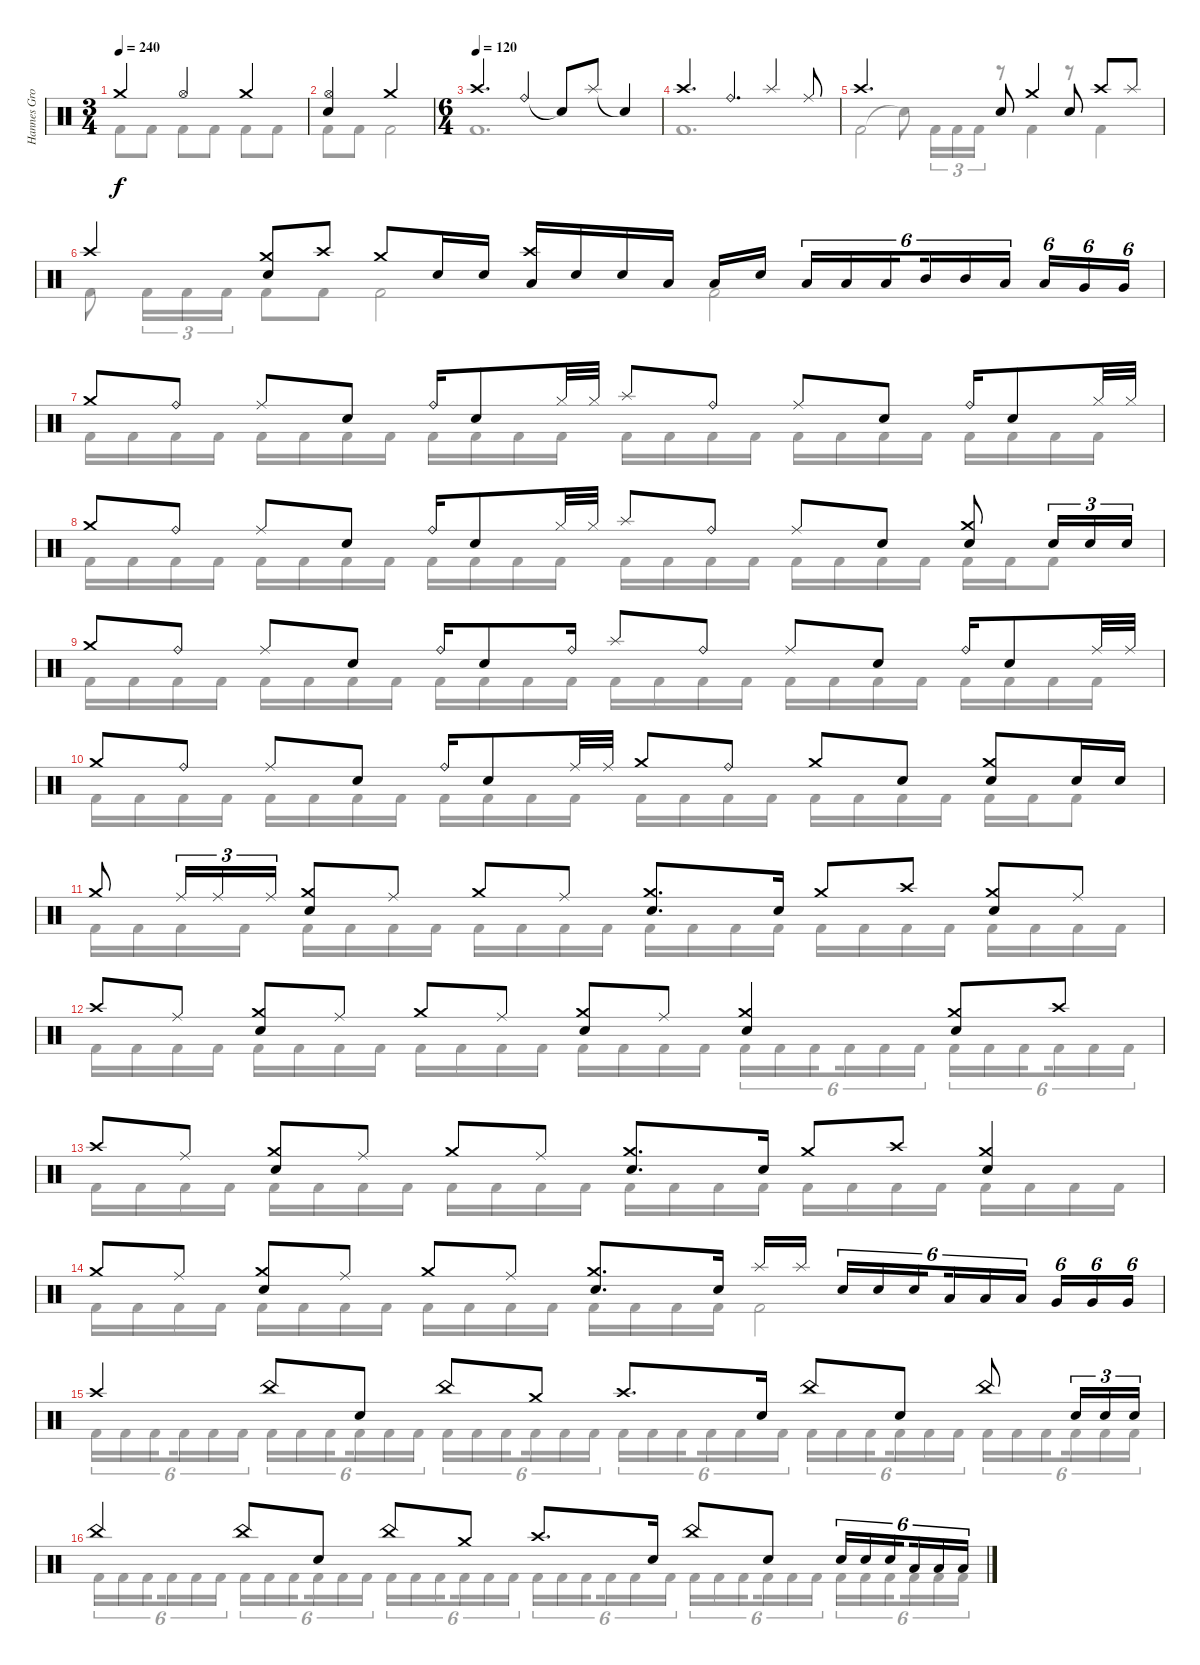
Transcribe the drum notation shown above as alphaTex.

\track ("Hannes Grossmann - drums" "Hannes Gro") {instrument percussion}
\staff {score}
\articulation defaults
\voice
\ts (3 4)
\tempo 240
\clef neutral
\ks c "Crash medium (hit)".4{dy f} "Hi-Hat (open)".4 "Crash medium (hit)".4
|
("Hi-Hat (open)" "Electric Snare (hit)").4 "Crash medium (hit)".2 |
\ts (6 4)
\tempo (120)
"Crash high (hit)".2{d} "Ride (bell)".4 "Snare (hit)"{t}.8 "Splash (hit)".8 "Snare (hit)"{t}.4 |
"Crash high (hit)".2{d} "Ride (bell)".4{d} "Splash (hit)".4 "Ride (middle)".8 |
"Crash high (hit)".2{d} "Electric Snare (hit)".8 "Crash medium (hit)".4 "Electric Snare (hit)".8 "Crash high (hit)".8 "Splash (hit)".8 |
"Crash high (hit)".4 ("Crash medium (hit)" "Electric Snare (hit)").8 "Crash high (hit)".8 "Crash medium (hit)".8 "Electric Snare (hit)".16 "Electric Snare (hit)".16 ("Crash high (hit)" "Low Tom (hit)").16 "Electric Snare (hit)".16 "Electric Snare (hit)".16 "Low Tom (hit)".16 "Low Tom (hit)".16 "Electric Snare (hit)".16{beam splitsecondary} "Low Tom (hit)".16{tu (6 4)} "Low Tom (hit)".16{tu (6 4)} "Low Tom (hit)".16{tu (6 4) beam splitsecondary} "Mid Tom (hit)".16{tu (6 4)} "Mid Tom (hit)".16{tu (6 4)} "Low Tom (hit)".16{tu (6 4) beam splitsecondary} "Low Tom (hit)".16{tu (6 4)} "Very Low Tom (hit)".16{tu (6 4)} "Very Low Tom (hit)".16{tu (6 4)} |
"Crash medium (hit)".8 "Ride (bell)".8 "Ride (middle)".8 "Electric Snare (hit)".8 "Ride (bell)".16 "Electric Snare (hit)".8 "Hi-Hat (closed)".32 "Hi-Hat (closed)".32 "Splash (hit)".8 "Ride (bell)".8 "Ride (middle)".8 "Electric Snare (hit)".8 "Ride (bell)".16 "Electric Snare (hit)".8 "Hi-Hat (closed)".32 "Hi-Hat (closed)".32 |
"Crash medium (hit)".8 "Ride (bell)".8 "Ride (middle)".8 "Electric Snare (hit)".8 "Ride (bell)".16 "Electric Snare (hit)".8 "Hi-Hat (closed)".32 "Hi-Hat (closed)".32 "Splash (hit)".8 "Ride (bell)".8 "Ride (middle)".8 "Electric Snare (hit)".8 ("Crash medium (hit)" "Electric Snare (hit)").8 "Electric Snare (hit)".16{tu (3 2)} "Electric Snare (hit)".16{tu (3 2)} "Electric Snare (hit)".16{tu (3 2)} |
"Crash medium (hit)".8 "Ride (bell)".8 "Ride (middle)".8 "Electric Snare (hit)".8 "Ride (bell)".16 "Electric Snare (hit)".8 "Ride (bell)".16 "Splash (hit)".8 "Ride (bell)".8 "Ride (middle)".8 "Electric Snare (hit)".8 "Ride (bell)".16 "Electric Snare (hit)".8 "Ride (middle)".32 "Ride (middle)".32 |
"Crash medium (hit)".8 "Ride (bell)".8 "Ride (middle)".8 "Electric Snare (hit)".8 "Ride (bell)".16 "Electric Snare (hit)".8 "Ride (middle)".32 "Ride (middle)".32 "Crash medium (hit)".8 "Ride (bell)".8 "Crash medium (hit)".8 "Electric Snare (hit)".8 ("Crash medium (hit)" "Electric Snare (hit)").8 "Electric Snare (hit)".16 "Electric Snare (hit)".16 |
"Crash medium (hit)".8 "Ride (middle)".16{tu (3 2)} "Ride (middle)".16{tu (3 2)} "Ride (middle)".16{tu (3 2)} ("Crash medium (hit)" "Electric Snare (hit)").8 "Ride (middle)".8 "Crash medium (hit)".8 "Ride (middle)".8 ("Crash medium (hit)" "Electric Snare (hit)").8{d} "Electric Snare (hit)".16 "Crash medium (hit)".8 "Crash high (hit)".8 ("Crash medium (hit)" "Electric Snare (hit)").8 "Ride (middle)".8 |
"Crash high (hit)".8 "Ride (middle)".8 ("Crash medium (hit)" "Electric Snare (hit)").8 "Ride (middle)".8 "Crash medium (hit)".8 "Ride (middle)".8 ("Crash medium (hit)" "Electric Snare (hit)").8 "Ride (middle)".8 ("Crash medium (hit)" "Electric Snare (hit)").4 ("Crash medium (hit)" "Electric Snare (hit)").8 "Crash high (hit)".8 |
"Crash high (hit)".8 "Ride (middle)".8 ("Crash medium (hit)" "Electric Snare (hit)").8 "Ride (middle)".8 "Crash medium (hit)".8 "Ride (middle)".8 ("Crash medium (hit)" "Electric Snare (hit)").8{d} "Electric Snare (hit)".16 "Crash medium (hit)".8 "Crash high (hit)".8 ("Crash medium (hit)" "Electric Snare (hit)").4 |
"Crash medium (hit)".8 "Ride (middle)".8 ("Crash medium (hit)" "Electric Snare (hit)").8 "Ride (middle)".8 "Crash medium (hit)".8 "Ride (middle)".8 ("Crash medium (hit)" "Electric Snare (hit)").8{d} "Electric Snare (hit)".16 "Splash (hit)".16 "Splash (hit)".16{beam splitsecondary} "Electric Snare (hit)".16{tu (6 4)} "Electric Snare (hit)".16{tu (6 4)} "Electric Snare (hit)".16{tu (6 4) beam splitsecondary} "Low Tom (hit)".16{tu (6 4)} "Low Tom (hit)".16{tu (6 4)} "Low Tom (hit)".16{tu (6 4) beam splitsecondary} "Very Low Tom (hit)".16{tu (6 4)} "Very Low Tom (hit)".16{tu (6 4)} "Very Low Tom (hit)".16{tu (6 4)} |
"Crash high (hit)".4 "China (hit)".8 "Electric Snare (hit)".8 "China (hit)".8 "Crash medium (hit)".8 "Crash high (hit)".8{d} "Electric Snare (hit)".16 "China (hit)".8 "Electric Snare (hit)".8 "China (hit)".8 "Electric Snare (hit)".16{tu (3 2)} "Electric Snare (hit)".16{tu (3 2)} "Electric Snare (hit)".16{tu (3 2)} |
"China (hit)".4 "China (hit)".8 "Electric Snare (hit)".8 "China (hit)".8 "Crash medium (hit)".8 "Crash high (hit)".8{d} "Electric Snare (hit)".16 "China (hit)".8 "Electric Snare (hit)".8 "Electric Snare (hit)".16{tu (6 4)} "Electric Snare (hit)".16{tu (6 4)} "Electric Snare (hit)".16{tu (6 4) beam splitsecondary} "Low Tom (hit)".16{tu (6 4)} "Low Tom (hit)".16{tu (6 4)} "Low Tom (hit)".16{tu (6 4)}
\voice
\clef neutral
\ottava regular
\simile none
\ks c "Kick (hit) 2".8{dy f} "Kick (hit) 2".8 "Kick (hit) 2".8 "Kick (hit) 2".8 "Kick (hit) 2".8 "Kick (hit) 2".8
|
"Kick (hit) 2".8 "Kick (hit) 2".8 "Kick (hit) 2".2 |
"Kick (hit) 2".1{d} |
"Kick (hit) 2".1{d} |
"Kick (hit) 2".2 "Snare (hit)"{t}.8 "Kick (hit) 2".16{tu (3 2)} "Kick (hit) 2".16{tu (3 2)} "Kick (hit) 2".16{tu (3 2)} r.8 "Kick (hit) 2".4 r.8 "Kick (hit) 2".4 |
"Kick (hit) 2".8 "Kick (hit) 2".16{tu (3 2)} "Kick (hit) 2".16{tu (3 2)} "Kick (hit) 2".16{tu (3 2)} "Kick (hit) 2".8 "Kick (hit) 2".8 "Kick (hit) 2".2 "Kick (hit) 2".2 |
"Kick (hit) 2".16 "Kick (hit) 2".16 "Kick (hit) 2".16 "Kick (hit) 2".16 "Kick (hit) 2".16 "Kick (hit) 2".16 "Kick (hit) 2".16 "Kick (hit) 2".16 "Kick (hit) 2".16 "Kick (hit) 2".16 "Kick (hit) 2".16 "Kick (hit) 2".16 "Kick (hit) 2".16 "Kick (hit) 2".16 "Kick (hit) 2".16 "Kick (hit) 2".16 "Kick (hit) 2".16 "Kick (hit) 2".16 "Kick (hit) 2".16 "Kick (hit) 2".16 "Kick (hit) 2".16 "Kick (hit) 2".16 "Kick (hit) 2".16 "Kick (hit) 2".16 |
"Kick (hit) 2".16 "Kick (hit) 2".16 "Kick (hit) 2".16 "Kick (hit) 2".16 "Kick (hit) 2".16 "Kick (hit) 2".16 "Kick (hit) 2".16 "Kick (hit) 2".16 "Kick (hit) 2".16 "Kick (hit) 2".16 "Kick (hit) 2".16 "Kick (hit) 2".16 "Kick (hit) 2".16 "Kick (hit) 2".16 "Kick (hit) 2".16 "Kick (hit) 2".16 "Kick (hit) 2".16 "Kick (hit) 2".16 "Kick (hit) 2".16 "Kick (hit) 2".16 "Kick (hit) 2".16 "Kick (hit) 2".16 "Kick (hit) 2".8 |
"Kick (hit) 2".16 "Kick (hit) 2".16 "Kick (hit) 2".16 "Kick (hit) 2".16 "Kick (hit) 2".16 "Kick (hit) 2".16 "Kick (hit) 2".16 "Kick (hit) 2".16 "Kick (hit) 2".16 "Kick (hit) 2".16 "Kick (hit) 2".16 "Kick (hit) 2".16 "Kick (hit) 2".16 "Kick (hit) 2".16 "Kick (hit) 2".16 "Kick (hit) 2".16 "Kick (hit) 2".16 "Kick (hit) 2".16 "Kick (hit) 2".16 "Kick (hit) 2".16 "Kick (hit) 2".16 "Kick (hit) 2".16 "Kick (hit) 2".16 "Kick (hit) 2".16 |
"Kick (hit) 2".16 "Kick (hit) 2".16 "Kick (hit) 2".16 "Kick (hit) 2".16 "Kick (hit) 2".16 "Kick (hit) 2".16 "Kick (hit) 2".16 "Kick (hit) 2".16 "Kick (hit) 2".16 "Kick (hit) 2".16 "Kick (hit) 2".16 "Kick (hit) 2".16 "Kick (hit) 2".16 "Kick (hit) 2".16 "Kick (hit) 2".16 "Kick (hit) 2".16 "Kick (hit) 2".16 "Kick (hit) 2".16 "Kick (hit) 2".16 "Kick (hit) 2".16 "Kick (hit) 2".16 "Kick (hit) 2".16 "Kick (hit) 2".8 |
"Kick (hit) 2".16 "Kick (hit) 2".16 "Kick (hit) 2".16 "Kick (hit) 2".16 "Kick (hit) 2".16 "Kick (hit) 2".16 "Kick (hit) 2".16 "Kick (hit) 2".16 "Kick (hit) 2".16 "Kick (hit) 2".16 "Kick (hit) 2".16 "Kick (hit) 2".16 "Kick (hit) 2".16 "Kick (hit) 2".16 "Kick (hit) 2".16 "Kick (hit) 2".16 "Kick (hit) 2".16 "Kick (hit) 2".16 "Kick (hit) 2".16 "Kick (hit) 2".16 "Kick (hit) 2".16 "Kick (hit) 2".16 "Kick (hit) 2".16 "Kick (hit) 2".16 |
"Kick (hit) 2".16 "Kick (hit) 2".16 "Kick (hit) 2".16 "Kick (hit) 2".16 "Kick (hit) 2".16 "Kick (hit) 2".16 "Kick (hit) 2".16 "Kick (hit) 2".16 "Kick (hit) 2".16 "Kick (hit) 2".16 "Kick (hit) 2".16 "Kick (hit) 2".16 "Kick (hit) 2".16 "Kick (hit) 2".16 "Kick (hit) 2".16 "Kick (hit) 2".16{beam splitsecondary} "Kick (hit) 2".16{tu (6 4)} "Kick (hit) 2".16{tu (6 4)} "Kick (hit) 2".16{tu (6 4) beam splitsecondary} "Kick (hit) 2".16{tu (6 4)} "Kick (hit) 2".16{tu (6 4)} "Kick (hit) 2".16{tu (6 4) beam splitsecondary} "Kick (hit) 2".16{tu (6 4)} "Kick (hit) 2".16{tu (6 4)} "Kick (hit) 2".16{tu (6 4) beam splitsecondary} "Kick (hit) 2".16{tu (6 4)} "Kick (hit) 2".16{tu (6 4)} "Kick (hit) 2".16{tu (6 4)} |
"Kick (hit) 2".16 "Kick (hit) 2".16 "Kick (hit) 2".16 "Kick (hit) 2".16 "Kick (hit) 2".16 "Kick (hit) 2".16 "Kick (hit) 2".16 "Kick (hit) 2".16 "Kick (hit) 2".16 "Kick (hit) 2".16 "Kick (hit) 2".16 "Kick (hit) 2".16 "Kick (hit) 2".16 "Kick (hit) 2".16 "Kick (hit) 2".16 "Kick (hit) 2".16 "Kick (hit) 2".16 "Kick (hit) 2".16 "Kick (hit) 2".16 "Kick (hit) 2".16 "Kick (hit) 2".16 "Kick (hit) 2".16 "Kick (hit) 2".16 "Kick (hit) 2".16 |
"Kick (hit) 2".16 "Kick (hit) 2".16 "Kick (hit) 2".16 "Kick (hit) 2".16 "Kick (hit) 2".16 "Kick (hit) 2".16 "Kick (hit) 2".16 "Kick (hit) 2".16 "Kick (hit) 2".16 "Kick (hit) 2".16 "Kick (hit) 2".16 "Kick (hit) 2".16 "Kick (hit) 2".16 "Kick (hit) 2".16 "Kick (hit) 2".16 "Kick (hit) 2".16 "Kick (hit) 2".2 |
"Kick (hit) 2".16{tu (6 4)} "Kick (hit) 2".16{tu (6 4)} "Kick (hit) 2".16{tu (6 4) beam splitsecondary} "Kick (hit) 2".16{tu (6 4)} "Kick (hit) 2".16{tu (6 4)} "Kick (hit) 2".16{tu (6 4) beam splitsecondary} "Kick (hit) 2".16{tu (6 4)} "Kick (hit) 2".16{tu (6 4)} "Kick (hit) 2".16{tu (6 4) beam splitsecondary} "Kick (hit) 2".16{tu (6 4)} "Kick (hit) 2".16{tu (6 4)} "Kick (hit) 2".16{tu (6 4) beam splitsecondary} "Kick (hit) 2".16{tu (6 4)} "Kick (hit) 2".16{tu (6 4)} "Kick (hit) 2".16{tu (6 4) beam splitsecondary} "Kick (hit) 2".16{tu (6 4)} "Kick (hit) 2".16{tu (6 4)} "Kick (hit) 2".16{tu (6 4)} "Kick (hit) 2".16{tu (6 4)} "Kick (hit) 2".16{tu (6 4)} "Kick (hit) 2".16{tu (6 4) beam splitsecondary} "Kick (hit) 2".16{tu (6 4)} "Kick (hit) 2".16{tu (6 4)} "Kick (hit) 2".16{tu (6 4) beam splitsecondary} "Kick (hit) 2".16{tu (6 4)} "Kick (hit) 2".16{tu (6 4)} "Kick (hit) 2".16{tu (6 4) beam splitsecondary} "Kick (hit) 2".16{tu (6 4)} "Kick (hit) 2".16{tu (6 4)} "Kick (hit) 2".16{tu (6 4) beam splitsecondary} "Kick (hit) 2".16{tu (6 4)} "Kick (hit) 2".16{tu (6 4)} "Kick (hit) 2".16{tu (6 4) beam splitsecondary} "Kick (hit) 2".16{tu (6 4)} "Kick (hit) 2".16{tu (6 4)} "Kick (hit) 2".16{tu (6 4)} |
"Kick (hit) 2".16{tu (6 4)} "Kick (hit) 2".16{tu (6 4)} "Kick (hit) 2".16{tu (6 4) beam splitsecondary} "Kick (hit) 2".16{tu (6 4)} "Kick (hit) 2".16{tu (6 4)} "Kick (hit) 2".16{tu (6 4) beam splitsecondary} "Kick (hit) 2".16{tu (6 4)} "Kick (hit) 2".16{tu (6 4)} "Kick (hit) 2".16{tu (6 4) beam splitsecondary} "Kick (hit) 2".16{tu (6 4)} "Kick (hit) 2".16{tu (6 4)} "Kick (hit) 2".16{tu (6 4) beam splitsecondary} "Kick (hit) 2".16{tu (6 4)} "Kick (hit) 2".16{tu (6 4)} "Kick (hit) 2".16{tu (6 4) beam splitsecondary} "Kick (hit) 2".16{tu (6 4)} "Kick (hit) 2".16{tu (6 4)} "Kick (hit) 2".16{tu (6 4)} "Kick (hit) 2".16{tu (6 4)} "Kick (hit) 2".16{tu (6 4)} "Kick (hit) 2".16{tu (6 4) beam splitsecondary} "Kick (hit) 2".16{tu (6 4)} "Kick (hit) 2".16{tu (6 4)} "Kick (hit) 2".16{tu (6 4) beam splitsecondary} "Kick (hit) 2".16{tu (6 4)} "Kick (hit) 2".16{tu (6 4)} "Kick (hit) 2".16{tu (6 4) beam splitsecondary} "Kick (hit) 2".16{tu (6 4)} "Kick (hit) 2".16{tu (6 4)} "Kick (hit) 2".16{tu (6 4) beam splitsecondary} "Kick (hit) 2".16{tu (6 4)} "Kick (hit) 2".16{tu (6 4)} "Kick (hit) 2".16{tu (6 4) beam splitsecondary} "Kick (hit) 2".16{tu (6 4)} "Kick (hit) 2".16{tu (6 4)} "Kick (hit) 2".16{tu (6 4)}
